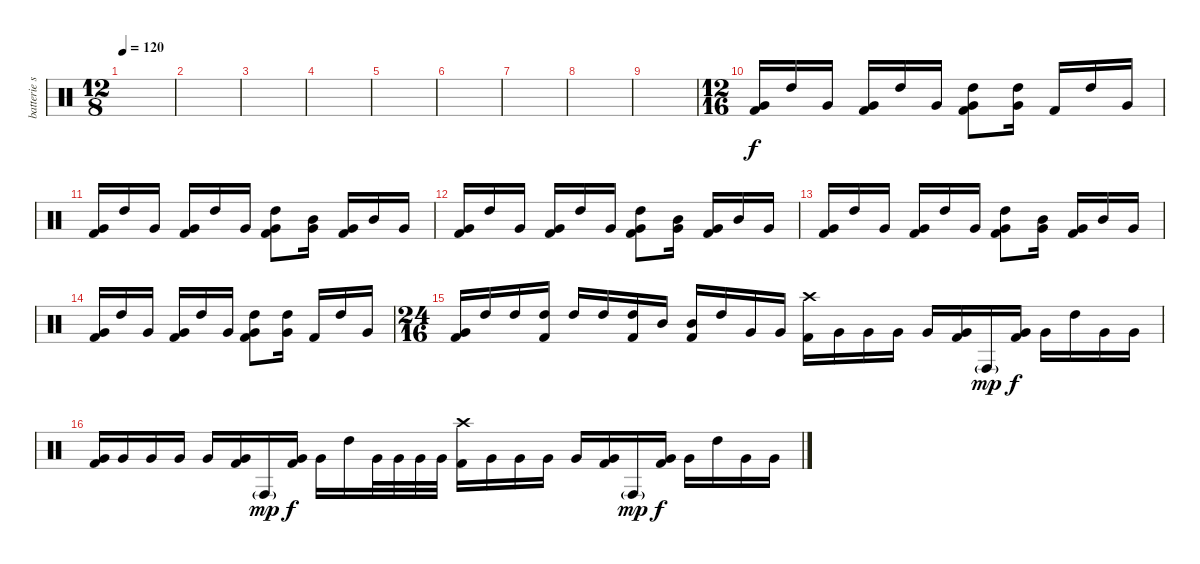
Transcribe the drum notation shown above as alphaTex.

\track ("batterie sur toms" "batterie s") {instrument percussion}
\staff {score}
\articulation defaults
\ts (12 8)
\tempo 120
\clef neutral
\ks c
|
|
|
|
|
|
|
|
|
\ts (12 16)
("Very Low Tom (hit)" "Kick (hit) 2").16 "High Tom (hit)".16 "Very Low Tom (hit)".16 ("Very Low Tom (hit)" "Kick (hit) 2").16 "High Tom (hit)".16 "Very Low Tom (hit)".16 ("High Tom (hit)" "Very Low Tom (hit)" "Kick (hit) 2").8 ("High Tom (hit)" "Very Low Tom (hit)").16 "Kick (hit) 2".16 "High Tom (hit)".16 "Very Low Tom (hit)".16 |
("Very Low Tom (hit)" "Kick (hit) 2").16 "High Tom (hit)".16 "Very Low Tom (hit)".16 ("Very Low Tom (hit)" "Kick (hit) 2").16 "High Tom (hit)".16 "Very Low Tom (hit)".16 ("High Tom (hit)" "Very Low Tom (hit)" "Kick (hit) 2").8 ("Mid Tom (hit)" "Very Low Tom (hit)").16 ("Very Low Tom (hit)" "Kick (hit) 2").16 "Mid Tom (hit)".16 "Very Low Tom (hit)".16 |
("Very Low Tom (hit)" "Kick (hit) 2").16 "High Tom (hit)".16 "Very Low Tom (hit)".16 ("Very Low Tom (hit)" "Kick (hit) 2").16 "High Tom (hit)".16 "Very Low Tom (hit)".16 ("High Tom (hit)" "Very Low Tom (hit)" "Kick (hit) 2").8 ("Mid Tom (hit)" "Very Low Tom (hit)").16 ("Very Low Tom (hit)" "Kick (hit) 2").16 "Mid Tom (hit)".16 "Very Low Tom (hit)".16 |
("Very Low Tom (hit)" "Kick (hit) 2").16 "High Tom (hit)".16 "Very Low Tom (hit)".16 ("Very Low Tom (hit)" "Kick (hit) 2").16 "High Tom (hit)".16 "Very Low Tom (hit)".16 ("High Tom (hit)" "Very Low Tom (hit)" "Kick (hit) 2").8 ("Mid Tom (hit)" "Very Low Tom (hit)").16 ("Very Low Tom (hit)" "Kick (hit) 2").16 "Mid Tom (hit)".16 "Very Low Tom (hit)".16 |
("Very Low Tom (hit)" "Kick (hit) 2").16 "High Tom (hit)".16 "Very Low Tom (hit)".16 ("Very Low Tom (hit)" "Kick (hit) 2").16 "High Tom (hit)".16 "Very Low Tom (hit)".16 ("High Tom (hit)" "Very Low Tom (hit)" "Kick (hit) 2").8 ("High Tom (hit)" "Very Low Tom (hit)").16 "Kick (hit) 2".16 "High Tom (hit)".16 "Very Low Tom (hit)".16 |
\ts (24 16)
("Very Low Tom (hit)" "Kick (hit) 2").16 "High Tom (hit)".16 "High Tom (hit)".16 ("High Tom (hit)" "Kick (hit) 2").16 "High Tom (hit)".16 "High Tom (hit)".16 ("High Tom (hit)" "Kick (hit) 2").16 "Mid Tom (hit)".16 ("Mid Tom (hit)" "Kick (hit) 2").16 "High Tom (hit)".16 "Very Low Tom (hit)".16 "Very Low Tom (hit)".16 ("Crash high (hit)" "Kick (hit) 2").16 "Very Low Tom (hit)".16 "Very Low Tom (hit)".16 "Very Low Tom (hit)".16 "Very Low Tom (hit)".16 ("Very Low Tom (hit)" "Kick (hit) 2").16 "Conga high (hit)"{g}.16{dy mp} ("Very Low Tom (hit)" "Kick (hit) 2").16{dy f} "Very Low Tom (hit)".16 "High Tom (hit)".16 "Very Low Tom (hit)".16 "Very Low Tom (hit)".16 |
("Very Low Tom (hit)" "Kick (hit) 2").16 "Very Low Tom (hit)".16 "Very Low Tom (hit)".16 "Very Low Tom (hit)".16 "Very Low Tom (hit)".16 ("Very Low Tom (hit)" "Kick (hit) 2").16 "Conga high (hit)"{g}.16{dy mp} ("Very Low Tom (hit)" "Kick (hit) 2").16{dy f} "Very Low Tom (hit)".16 "High Tom (hit)".16 "Very Low Tom (hit)".32 "Very Low Tom (hit)".32 "Very Low Tom (hit)".32 "Very Low Tom (hit)".32 ("Crash high (hit)" "Kick (hit) 2").16 "Very Low Tom (hit)".16 "Very Low Tom (hit)".16 "Very Low Tom (hit)".16 "Very Low Tom (hit)".16 ("Very Low Tom (hit)" "Kick (hit) 2").16 "Conga high (hit)"{g}.16{dy mp} ("Very Low Tom (hit)" "Kick (hit) 2").16{dy f} "Very Low Tom (hit)".16 "High Tom (hit)".16 "Very Low Tom (hit)".16 "Very Low Tom (hit)".16
